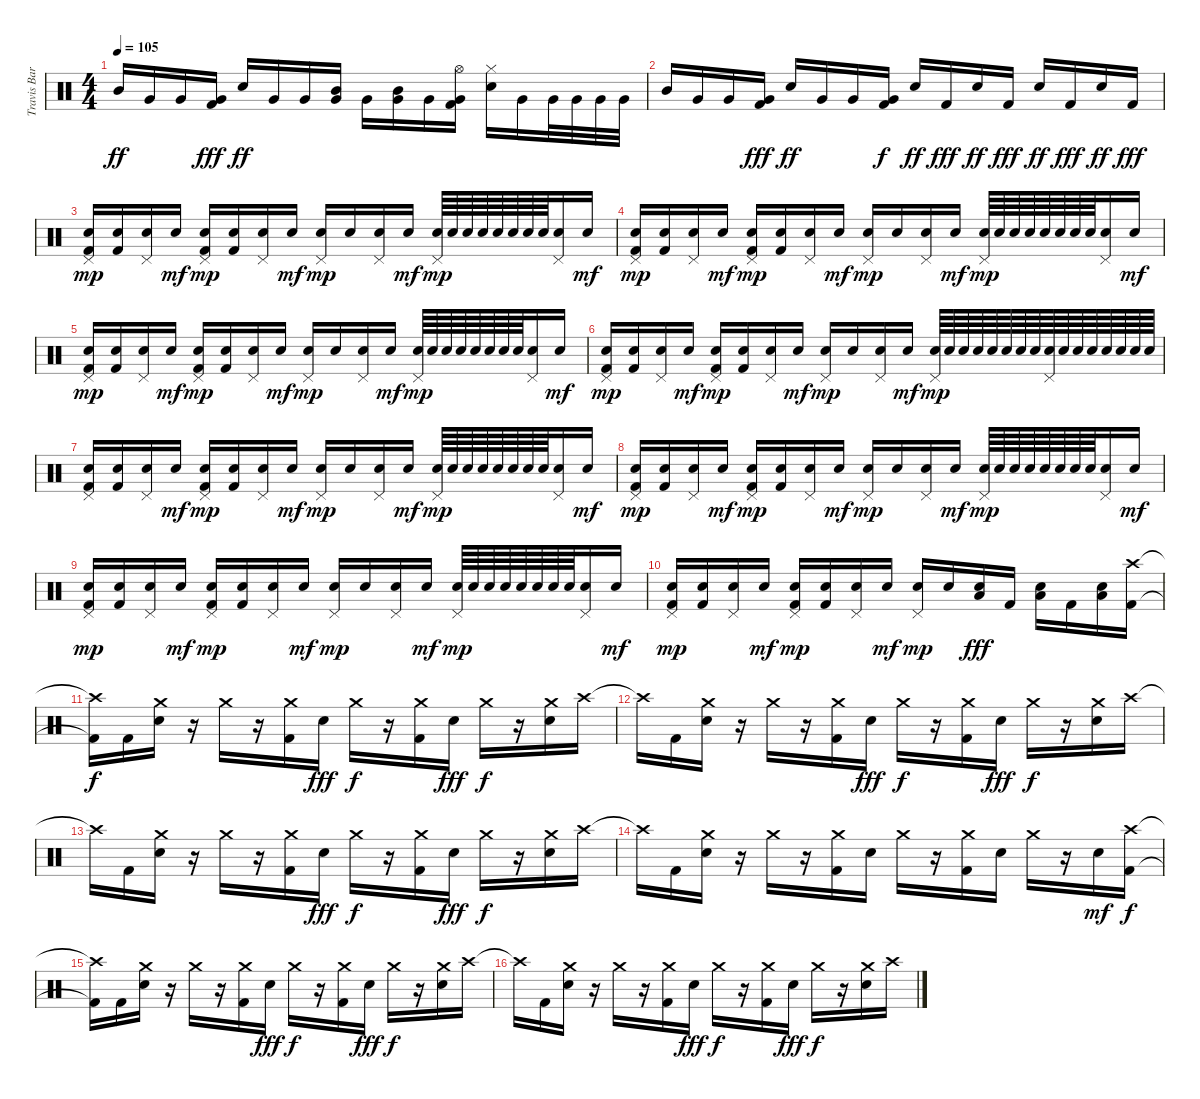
\track ("Travis Barker(Drums)" "Travis Bar") {instrument percussion}
\staff {score}
\articulation defaults
\ts (4 4)
\tempo 105
\clef neutral
\ks c "Mid Tom (hit)".16{dy ff} "Very Low Tom (hit)".16 "Very Low Tom (hit)".16
("Very Low Tom (hit)" "Kick (hit) 2").16{dy fff} "Electric Snare (hit)".16{dy ff} "Very Low Tom (hit)".16 "Very Low Tom (hit)".16 ("Mid Tom (hit)" "Very Low Tom (hit)").16 "Very Low Tom (hit)".16 ("Mid Tom (hit)" "Very Low Tom (hit)").16 "Very Low Tom (hit)".16 ("Hi-Hat (open)" "Very Low Tom (hit)" "Kick (hit) 2").16 ("Hi-Hat (closed)" "Electric Snare (hit)").16 "Very Low Tom (hit)".16 "Very Low Tom (hit)".32 "Very Low Tom (hit)".32 "Very Low Tom (hit)".32 "Very Low Tom (hit)".32 |
"Mid Tom (hit)".16 "Very Low Tom (hit)".16 "Very Low Tom (hit)".16 ("Very Low Tom (hit)" "Kick (hit) 2").16{dy fff} "Electric Snare (hit)".16{dy ff} "Very Low Tom (hit)".16 "Very Low Tom (hit)".16 ("Very Low Tom (hit)" "Kick (hit) 2").16{dy f} "Electric Snare (hit)".16{dy ff} "Kick (hit) 2".16{dy fff} "Electric Snare (hit)".16{dy ff} "Kick (hit) 2".16{dy fff} "Electric Snare (hit)".16{dy ff} "Kick (hit) 2".16{dy fff} "Electric Snare (hit)".16{dy ff} "Kick (hit) 2".16{dy fff} |
("Pedal Hi-Hat (hit)" "Electric Snare (hit)" "Kick (hit) 2").16{dy mp} ("Electric Snare (hit)" "Kick (hit) 2").16 ("Pedal Hi-Hat (hit)" "Electric Snare (hit)").16 "Electric Snare (hit)".16{dy mf} ("Pedal Hi-Hat (hit)" "Electric Snare (hit)" "Kick (hit) 2").16{dy mp} ("Electric Snare (hit)" "Kick (hit) 2").16 ("Pedal Hi-Hat (hit)" "Electric Snare (hit)").16 "Electric Snare (hit)".16{dy mf} ("Pedal Hi-Hat (hit)" "Electric Snare (hit)").16{dy mp} "Electric Snare (hit)".16 ("Pedal Hi-Hat (hit)" "Electric Snare (hit)").16 "Electric Snare (hit)".16{dy mf} ("Pedal Hi-Hat (hit)" "Electric Snare (hit)").64{dy mp} "Electric Snare (hit)".64 "Electric Snare (hit)".64 "Electric Snare (hit)".64 "Electric Snare (hit)".64 "Electric Snare (hit)".64 "Electric Snare (hit)".64 "Electric Snare (hit)".64 ("Pedal Hi-Hat (hit)" "Electric Snare (hit)").16 "Electric Snare (hit)".16{dy mf} |
("Pedal Hi-Hat (hit)" "Electric Snare (hit)" "Kick (hit) 2").16{dy mp} ("Electric Snare (hit)" "Kick (hit) 2").16 ("Pedal Hi-Hat (hit)" "Electric Snare (hit)").16 "Electric Snare (hit)".16{dy mf} ("Pedal Hi-Hat (hit)" "Electric Snare (hit)" "Kick (hit) 2").16{dy mp} ("Electric Snare (hit)" "Kick (hit) 2").16 ("Pedal Hi-Hat (hit)" "Electric Snare (hit)").16 "Electric Snare (hit)".16{dy mf} ("Pedal Hi-Hat (hit)" "Electric Snare (hit)").16{dy mp} "Electric Snare (hit)".16 ("Pedal Hi-Hat (hit)" "Electric Snare (hit)").16 "Electric Snare (hit)".16{dy mf} ("Pedal Hi-Hat (hit)" "Electric Snare (hit)").64{dy mp} "Electric Snare (hit)".64 "Electric Snare (hit)".64 "Electric Snare (hit)".64 "Electric Snare (hit)".64 "Electric Snare (hit)".64 "Electric Snare (hit)".64 "Electric Snare (hit)".64 ("Pedal Hi-Hat (hit)" "Electric Snare (hit)").16 "Electric Snare (hit)".16{dy mf} |
("Pedal Hi-Hat (hit)" "Electric Snare (hit)" "Kick (hit) 2").16{dy mp} ("Electric Snare (hit)" "Kick (hit) 2").16 ("Pedal Hi-Hat (hit)" "Electric Snare (hit)").16 "Electric Snare (hit)".16{dy mf} ("Pedal Hi-Hat (hit)" "Electric Snare (hit)" "Kick (hit) 2").16{dy mp} ("Electric Snare (hit)" "Kick (hit) 2").16 ("Pedal Hi-Hat (hit)" "Electric Snare (hit)").16 "Electric Snare (hit)".16{dy mf} ("Pedal Hi-Hat (hit)" "Electric Snare (hit)").16{dy mp} "Electric Snare (hit)".16 ("Pedal Hi-Hat (hit)" "Electric Snare (hit)").16 "Electric Snare (hit)".16{dy mf} ("Pedal Hi-Hat (hit)" "Electric Snare (hit)").64{dy mp} "Electric Snare (hit)".64 "Electric Snare (hit)".64 "Electric Snare (hit)".64 "Electric Snare (hit)".64 "Electric Snare (hit)".64 "Electric Snare (hit)".64 "Electric Snare (hit)".64 ("Pedal Hi-Hat (hit)" "Electric Snare (hit)").16 "Electric Snare (hit)".16{dy mf} |
("Pedal Hi-Hat (hit)" "Electric Snare (hit)" "Kick (hit) 2").16{dy mp} ("Electric Snare (hit)" "Kick (hit) 2").16 ("Pedal Hi-Hat (hit)" "Electric Snare (hit)").16 "Electric Snare (hit)".16{dy mf} ("Pedal Hi-Hat (hit)" "Electric Snare (hit)" "Kick (hit) 2").16{dy mp} ("Electric Snare (hit)" "Kick (hit) 2").16 ("Pedal Hi-Hat (hit)" "Electric Snare (hit)").16 "Electric Snare (hit)".16{dy mf} ("Pedal Hi-Hat (hit)" "Electric Snare (hit)").16{dy mp} "Electric Snare (hit)".16 ("Pedal Hi-Hat (hit)" "Electric Snare (hit)").16 "Electric Snare (hit)".16{dy mf} ("Pedal Hi-Hat (hit)" "Electric Snare (hit)").64{dy mp} "Electric Snare (hit)".64 "Electric Snare (hit)".64 "Electric Snare (hit)".64 "Electric Snare (hit)".64 "Electric Snare (hit)".64 "Electric Snare (hit)".64 "Electric Snare (hit)".64 ("Pedal Hi-Hat (hit)" "Electric Snare (hit)").64 "Electric Snare (hit)".64 "Electric Snare (hit)".64 "Electric Snare (hit)".64 "Electric Snare (hit)".64 "Electric Snare (hit)".64 "Electric Snare (hit)".64 "Electric Snare (hit)".64 |
("Pedal Hi-Hat (hit)" "Electric Snare (hit)" "Kick (hit) 2").16 ("Electric Snare (hit)" "Kick (hit) 2").16 ("Pedal Hi-Hat (hit)" "Electric Snare (hit)").16 "Electric Snare (hit)".16{dy mf} ("Pedal Hi-Hat (hit)" "Electric Snare (hit)" "Kick (hit) 2").16{dy mp} ("Electric Snare (hit)" "Kick (hit) 2").16 ("Pedal Hi-Hat (hit)" "Electric Snare (hit)").16 "Electric Snare (hit)".16{dy mf} ("Pedal Hi-Hat (hit)" "Electric Snare (hit)").16{dy mp} "Electric Snare (hit)".16 ("Pedal Hi-Hat (hit)" "Electric Snare (hit)").16 "Electric Snare (hit)".16{dy mf} ("Pedal Hi-Hat (hit)" "Electric Snare (hit)").64{dy mp} "Electric Snare (hit)".64 "Electric Snare (hit)".64 "Electric Snare (hit)".64 "Electric Snare (hit)".64 "Electric Snare (hit)".64 "Electric Snare (hit)".64 "Electric Snare (hit)".64 ("Pedal Hi-Hat (hit)" "Electric Snare (hit)").16 "Electric Snare (hit)".16{dy mf} |
("Pedal Hi-Hat (hit)" "Electric Snare (hit)" "Kick (hit) 2").16{dy mp} ("Electric Snare (hit)" "Kick (hit) 2").16 ("Pedal Hi-Hat (hit)" "Electric Snare (hit)").16 "Electric Snare (hit)".16{dy mf} ("Pedal Hi-Hat (hit)" "Electric Snare (hit)" "Kick (hit) 2").16{dy mp} ("Electric Snare (hit)" "Kick (hit) 2").16 ("Pedal Hi-Hat (hit)" "Electric Snare (hit)").16 "Electric Snare (hit)".16{dy mf} ("Pedal Hi-Hat (hit)" "Electric Snare (hit)").16{dy mp} "Electric Snare (hit)".16 ("Pedal Hi-Hat (hit)" "Electric Snare (hit)").16 "Electric Snare (hit)".16{dy mf} ("Pedal Hi-Hat (hit)" "Electric Snare (hit)").64{dy mp} "Electric Snare (hit)".64 "Electric Snare (hit)".64 "Electric Snare (hit)".64 "Electric Snare (hit)".64 "Electric Snare (hit)".64 "Electric Snare (hit)".64 "Electric Snare (hit)".64 ("Pedal Hi-Hat (hit)" "Electric Snare (hit)").16 "Electric Snare (hit)".16{dy mf} |
("Pedal Hi-Hat (hit)" "Electric Snare (hit)" "Kick (hit) 2").16{dy mp} ("Electric Snare (hit)" "Kick (hit) 2").16 ("Pedal Hi-Hat (hit)" "Electric Snare (hit)").16 "Electric Snare (hit)".16{dy mf} ("Pedal Hi-Hat (hit)" "Electric Snare (hit)" "Kick (hit) 2").16{dy mp} ("Electric Snare (hit)" "Kick (hit) 2").16 ("Pedal Hi-Hat (hit)" "Electric Snare (hit)").16 "Electric Snare (hit)".16{dy mf} ("Pedal Hi-Hat (hit)" "Electric Snare (hit)").16{dy mp} "Electric Snare (hit)".16 ("Pedal Hi-Hat (hit)" "Electric Snare (hit)").16 "Electric Snare (hit)".16{dy mf} ("Pedal Hi-Hat (hit)" "Electric Snare (hit)").64{dy mp} "Electric Snare (hit)".64 "Electric Snare (hit)".64 "Electric Snare (hit)".64 "Electric Snare (hit)".64 "Electric Snare (hit)".64 "Electric Snare (hit)".64 "Electric Snare (hit)".64 ("Pedal Hi-Hat (hit)" "Electric Snare (hit)").16 "Electric Snare (hit)".16{dy mf} |
("Pedal Hi-Hat (hit)" "Electric Snare (hit)" "Kick (hit) 2").16{dy mp} ("Electric Snare (hit)" "Kick (hit) 2").16 ("Pedal Hi-Hat (hit)" "Electric Snare (hit)").16 "Electric Snare (hit)".16{dy mf} ("Pedal Hi-Hat (hit)" "Electric Snare (hit)" "Kick (hit) 2").16{dy mp} ("Electric Snare (hit)" "Kick (hit) 2").16 ("Pedal Hi-Hat (hit)" "Electric Snare (hit)").16 "Electric Snare (hit)".16{dy mf} ("Pedal Hi-Hat (hit)" "Electric Snare (hit)").16{dy mp} "Electric Snare (hit)".16 ("Low Tom (hit)" "Electric Snare (hit)").16{dy fff} "Kick (hit) 2".16 ("Low Tom (hit)" "Electric Snare (hit)").16 "Kick (hit) 2".16 ("Low Tom (hit)" "Electric Snare (hit)").16 ("Crash high (hit)" "Kick (hit) 2").16 |
("Crash high (hit)"{t} "Kick (hit) 2"{t}).16{dy f} "Kick (hit) 2".16 ("Crash medium (hit)" "Electric Snare (hit)").16 r.16 "Crash medium (hit)".16 r.16 ("Crash medium (hit)" "Kick (hit) 2").16 "Electric Snare (hit)".16{dy fff} "Crash medium (hit)".16{dy f} r.16 ("Crash medium (hit)" "Kick (hit) 2").16 "Electric Snare (hit)".16{dy fff} "Crash medium (hit)".16{dy f} r.16 ("Crash medium (hit)" "Electric Snare (hit)").16 "Crash high (hit)".16 |
"Crash high (hit)"{t}.16 "Kick (hit) 2".16 ("Crash medium (hit)" "Electric Snare (hit)").16 r.16 "Crash medium (hit)".16 r.16 ("Crash medium (hit)" "Kick (hit) 2").16 "Electric Snare (hit)".16{dy fff} "Crash medium (hit)".16{dy f} r.16 ("Crash medium (hit)" "Kick (hit) 2").16 "Electric Snare (hit)".16{dy fff} "Crash medium (hit)".16{dy f} r.16 ("Crash medium (hit)" "Electric Snare (hit)").16 "Crash high (hit)".16 |
"Crash high (hit)"{t}.16 "Kick (hit) 2".16 ("Crash medium (hit)" "Electric Snare (hit)").16 r.16 "Crash medium (hit)".16 r.16 ("Crash medium (hit)" "Kick (hit) 2").16 "Electric Snare (hit)".16{dy fff} "Crash medium (hit)".16{dy f} r.16 ("Crash medium (hit)" "Kick (hit) 2").16 "Electric Snare (hit)".16{dy fff} "Crash medium (hit)".16{dy f} r.16 ("Crash medium (hit)" "Electric Snare (hit)").16 "Crash high (hit)".16 |
"Crash high (hit)"{t}.16 "Kick (hit) 2".16 ("Crash medium (hit)" "Electric Snare (hit)").16 r.16 "Crash medium (hit)".16 r.16 ("Crash medium (hit)" "Kick (hit) 2").16 "Electric Snare (hit)".16 "Crash medium (hit)".16 r.16 ("Crash medium (hit)" "Kick (hit) 2").16 "Electric Snare (hit)".16 "Crash medium (hit)".16 r.16 "Electric Snare (hit)".16{dy mf} ("Crash high (hit)" "Kick (hit) 2").16{dy f} |
("Crash high (hit)"{t} "Kick (hit) 2"{t}).16 "Kick (hit) 2".16 ("Crash medium (hit)" "Electric Snare (hit)").16 r.16 "Crash medium (hit)".16 r.16 ("Crash medium (hit)" "Kick (hit) 2").16 "Electric Snare (hit)".16{dy fff} "Crash medium (hit)".16{dy f} r.16 ("Crash medium (hit)" "Kick (hit) 2").16 "Electric Snare (hit)".16{dy fff} "Crash medium (hit)".16{dy f} r.16 ("Crash medium (hit)" "Electric Snare (hit)").16 "Crash high (hit)".16 |
"Crash high (hit)"{t}.16 "Kick (hit) 2".16 ("Crash medium (hit)" "Electric Snare (hit)").16 r.16 "Crash medium (hit)".16 r.16 ("Crash medium (hit)" "Kick (hit) 2").16 "Electric Snare (hit)".16{dy fff} "Crash medium (hit)".16{dy f} r.16 ("Crash medium (hit)" "Kick (hit) 2").16 "Electric Snare (hit)".16{dy fff} "Crash medium (hit)".16{dy f} r.16 ("Crash medium (hit)" "Electric Snare (hit)").16 "Crash high (hit)".16
